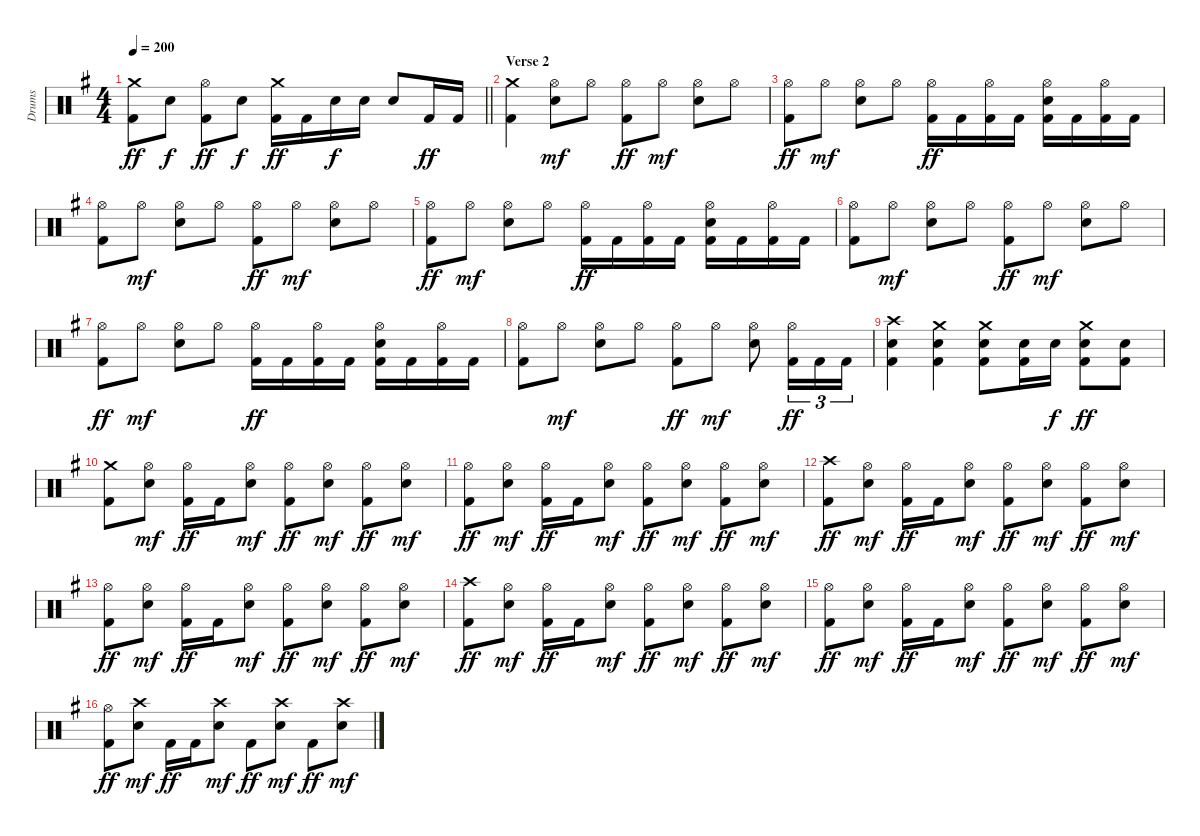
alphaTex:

\track ("Drums" "Drums") {instrument percussion}
\staff {score}
\articulation defaults
\ts (4 4)
\tempo 200
\clef neutral
\barLineRight lightlight
\ks g
("Crash medium (hit)" "Kick (hit) 2").8{dy ff} "Snare (hit) 2".8{dy f} ("Hi-Hat (open)" "Kick (hit) 2").8{dy ff} "Snare (hit) 2".8{dy f} ("Crash medium (hit)" "Kick (hit) 2").16{dy ff} "Kick (hit) 2".16 "Snare (hit) 2".16{dy f} "Snare (hit) 2".16 "Snare (hit) 2".8 "Kick (hit) 2".16{dy ff} "Kick (hit) 2".16 |
\section ("" "Verse 2")
("Crash medium (hit)" "Kick (hit) 2").4 ("Hi-Hat (open)" "Snare (hit) 2").8{dy mf} "Hi-Hat (open)".8 ("Hi-Hat (open)" "Kick (hit) 2").8{dy ff} "Hi-Hat (open)".8{dy mf} ("Hi-Hat (open)" "Snare (hit) 2").8 "Hi-Hat (open)".8 |
("Hi-Hat (open)" "Kick (hit) 2").8{dy ff} "Hi-Hat (open)".8{dy mf} ("Hi-Hat (open)" "Snare (hit) 2").8 "Hi-Hat (open)".8 ("Hi-Hat (open)" "Kick (hit) 2").16{dy ff} "Kick (hit) 2".16 ("Hi-Hat (open)" "Kick (hit) 2").16 "Kick (hit) 2".16 ("Hi-Hat (open)" "Snare (hit) 2" "Kick (hit) 2").16 "Kick (hit) 2".16 ("Hi-Hat (open)" "Kick (hit) 2").16 "Kick (hit) 2".16 |
("Hi-Hat (open)" "Kick (hit) 2").8 "Hi-Hat (open)".8{dy mf} ("Hi-Hat (open)" "Snare (hit) 2").8 "Hi-Hat (open)".8 ("Hi-Hat (open)" "Kick (hit) 2").8{dy ff} "Hi-Hat (open)".8{dy mf} ("Hi-Hat (open)" "Snare (hit) 2").8 "Hi-Hat (open)".8 |
("Hi-Hat (open)" "Kick (hit) 2").8{dy ff} "Hi-Hat (open)".8{dy mf} ("Hi-Hat (open)" "Snare (hit) 2").8 "Hi-Hat (open)".8 ("Hi-Hat (open)" "Kick (hit) 2").16{dy ff} "Kick (hit) 2".16 ("Hi-Hat (open)" "Kick (hit) 2").16 "Kick (hit) 2".16 ("Hi-Hat (open)" "Snare (hit) 2" "Kick (hit) 2").16 "Kick (hit) 2".16 ("Hi-Hat (open)" "Kick (hit) 2").16 "Kick (hit) 2".16 |
("Hi-Hat (open)" "Kick (hit) 2").8 "Hi-Hat (open)".8{dy mf} ("Hi-Hat (open)" "Snare (hit) 2").8 "Hi-Hat (open)".8 ("Hi-Hat (open)" "Kick (hit) 2").8{dy ff} "Hi-Hat (open)".8{dy mf} ("Hi-Hat (open)" "Snare (hit) 2").8 "Hi-Hat (open)".8 |
("Hi-Hat (open)" "Kick (hit) 2").8{dy ff} "Hi-Hat (open)".8{dy mf} ("Hi-Hat (open)" "Snare (hit) 2").8 "Hi-Hat (open)".8 ("Hi-Hat (open)" "Kick (hit) 2").16{dy ff} "Kick (hit) 2".16 ("Hi-Hat (open)" "Kick (hit) 2").16 "Kick (hit) 2".16 ("Hi-Hat (open)" "Snare (hit) 2" "Kick (hit) 2").16 "Kick (hit) 2".16 ("Hi-Hat (open)" "Kick (hit) 2").16 "Kick (hit) 2".16 |
("Hi-Hat (open)" "Kick (hit) 2").8 "Hi-Hat (open)".8{dy mf} ("Hi-Hat (open)" "Snare (hit) 2").8 "Hi-Hat (open)".8 ("Hi-Hat (open)" "Kick (hit) 2").8{dy ff} "Hi-Hat (open)".8{dy mf} ("Hi-Hat (open)" "Snare (hit) 2").8 ("Hi-Hat (open)" "Kick (hit) 2").16{tu (3 2) dy ff} "Kick (hit) 2".16{tu (3 2)} "Kick (hit) 2".16{tu (3 2)} |
("Crash high (hit)" "Snare (hit) 2" "Kick (hit) 2").4 ("Crash medium (hit)" "Snare (hit) 2" "Kick (hit) 2").4 ("Crash medium (hit)" "Snare (hit) 2" "Kick (hit) 2").8 ("Snare (hit) 2" "Kick (hit) 2").16 "Snare (hit) 2".16{dy f} ("Crash medium (hit)" "Snare (hit) 2" "Kick (hit) 2").8{dy ff} ("Snare (hit) 2" "Kick (hit) 2").8 |
("Crash medium (hit)" "Kick (hit) 2").8 ("Hi-Hat (open)" "Snare (hit) 2").8{dy mf} ("Hi-Hat (open)" "Kick (hit) 2").16{dy ff} "Kick (hit) 2".16 ("Hi-Hat (open)" "Snare (hit) 2").8{dy mf} ("Hi-Hat (open)" "Kick (hit) 2").8{dy ff} ("Hi-Hat (open)" "Snare (hit) 2").8{dy mf} ("Hi-Hat (open)" "Kick (hit) 2").8{dy ff} ("Hi-Hat (open)" "Snare (hit) 2").8{dy mf} |
("Hi-Hat (open)" "Kick (hit) 2").8{dy ff} ("Hi-Hat (open)" "Snare (hit) 2").8{dy mf} ("Hi-Hat (open)" "Kick (hit) 2").16{dy ff} "Kick (hit) 2".16 ("Hi-Hat (open)" "Snare (hit) 2").8{dy mf} ("Hi-Hat (open)" "Kick (hit) 2").8{dy ff} ("Hi-Hat (open)" "Snare (hit) 2").8{dy mf} ("Hi-Hat (open)" "Kick (hit) 2").8{dy ff} ("Hi-Hat (open)" "Snare (hit) 2").8{dy mf} |
("Crash high (hit)" "Kick (hit) 2").8{dy ff} ("Hi-Hat (open)" "Snare (hit) 2").8{dy mf} ("Hi-Hat (open)" "Kick (hit) 2").16{dy ff} "Kick (hit) 2".16 ("Hi-Hat (open)" "Snare (hit) 2").8{dy mf} ("Hi-Hat (open)" "Kick (hit) 2").8{dy ff} ("Hi-Hat (open)" "Snare (hit) 2").8{dy mf} ("Hi-Hat (open)" "Kick (hit) 2").8{dy ff} ("Hi-Hat (open)" "Snare (hit) 2").8{dy mf} |
("Hi-Hat (open)" "Kick (hit) 2").8{dy ff} ("Hi-Hat (open)" "Snare (hit) 2").8{dy mf} ("Hi-Hat (open)" "Kick (hit) 2").16{dy ff} "Kick (hit) 2".16 ("Hi-Hat (open)" "Snare (hit) 2").8{dy mf} ("Hi-Hat (open)" "Kick (hit) 2").8{dy ff} ("Hi-Hat (open)" "Snare (hit) 2").8{dy mf} ("Hi-Hat (open)" "Kick (hit) 2").8{dy ff} ("Hi-Hat (open)" "Snare (hit) 2").8{dy mf} |
("Crash high (hit)" "Kick (hit) 2").8{dy ff} ("Hi-Hat (open)" "Snare (hit) 2").8{dy mf} ("Hi-Hat (open)" "Kick (hit) 2").16{dy ff} "Kick (hit) 2".16 ("Hi-Hat (open)" "Snare (hit) 2").8{dy mf} ("Hi-Hat (open)" "Kick (hit) 2").8{dy ff} ("Hi-Hat (open)" "Snare (hit) 2").8{dy mf} ("Hi-Hat (open)" "Kick (hit) 2").8{dy ff} ("Hi-Hat (open)" "Snare (hit) 2").8{dy mf} |
("Hi-Hat (open)" "Kick (hit) 2").8{dy ff} ("Hi-Hat (open)" "Snare (hit) 2").8{dy mf} ("Hi-Hat (open)" "Kick (hit) 2").16{dy ff} "Kick (hit) 2".16 ("Hi-Hat (open)" "Snare (hit) 2").8{dy mf} ("Hi-Hat (open)" "Kick (hit) 2").8{dy ff} ("Hi-Hat (open)" "Snare (hit) 2").8{dy mf} ("Hi-Hat (open)" "Kick (hit) 2").8{dy ff} ("Hi-Hat (open)" "Snare (hit) 2").8{dy mf} |
("Hi-Hat (open)" "Kick (hit) 2").8{dy ff} ("Crash high (hit)" "Snare (hit) 2").8{dy mf} "Kick (hit) 2".16{dy ff} "Kick (hit) 2".16 ("Crash high (hit)" "Snare (hit) 2").8{dy mf} "Kick (hit) 2".8{dy ff} ("Crash high (hit)" "Snare (hit) 2").8{dy mf} "Kick (hit) 2".8{dy ff} ("Crash high (hit)" "Snare (hit) 2").8{dy mf}
